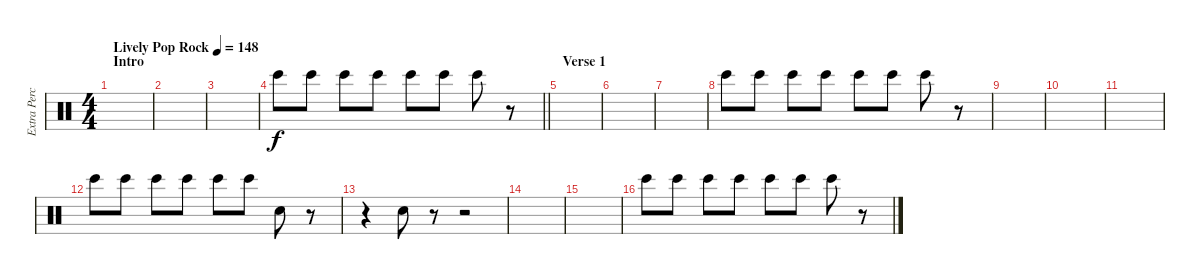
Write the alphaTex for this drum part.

\track ("Extra Percussion" "Extra Perc") {instrument percussion}
\staff {score}
\articulation defaults
\ts (4 4)
\section ("" "Intro")
\tempo (148 "Lively Pop Rock")
\clef neutral
\ks c
|
|
|
\barLineRight lightlight "Bongo High (hit)".8 "Bongo High (hit)".8 "Bongo High (hit)".8 "Bongo High (hit)".8 "Bongo High (hit)".8 "Bongo High (hit)".8 "Bongo High (hit)".8
r.8 |
\section ("" "Verse 1")
|
|
|
"Bongo High (hit)".8 "Bongo High (hit)".8 "Bongo High (hit)".8 "Bongo High (hit)".8 "Bongo High (hit)".8 "Bongo High (hit)".8 "Bongo High (hit)".8 r.8 |
|
|
|
"Bongo High (hit)".8 "Bongo High (hit)".8 "Bongo High (hit)".8 "Bongo High (hit)".8 "Bongo High (hit)".8 "Bongo High (hit)".8 "Hand Clap (hit)".8 r.8 |
r.4 "Hand Clap (hit)".8 r.8 r.2 |
|
|
"Bongo High (hit)".8 "Bongo High (hit)".8 "Bongo High (hit)".8 "Bongo High (hit)".8 "Bongo High (hit)".8 "Bongo High (hit)".8 "Bongo High (hit)".8 r.8
